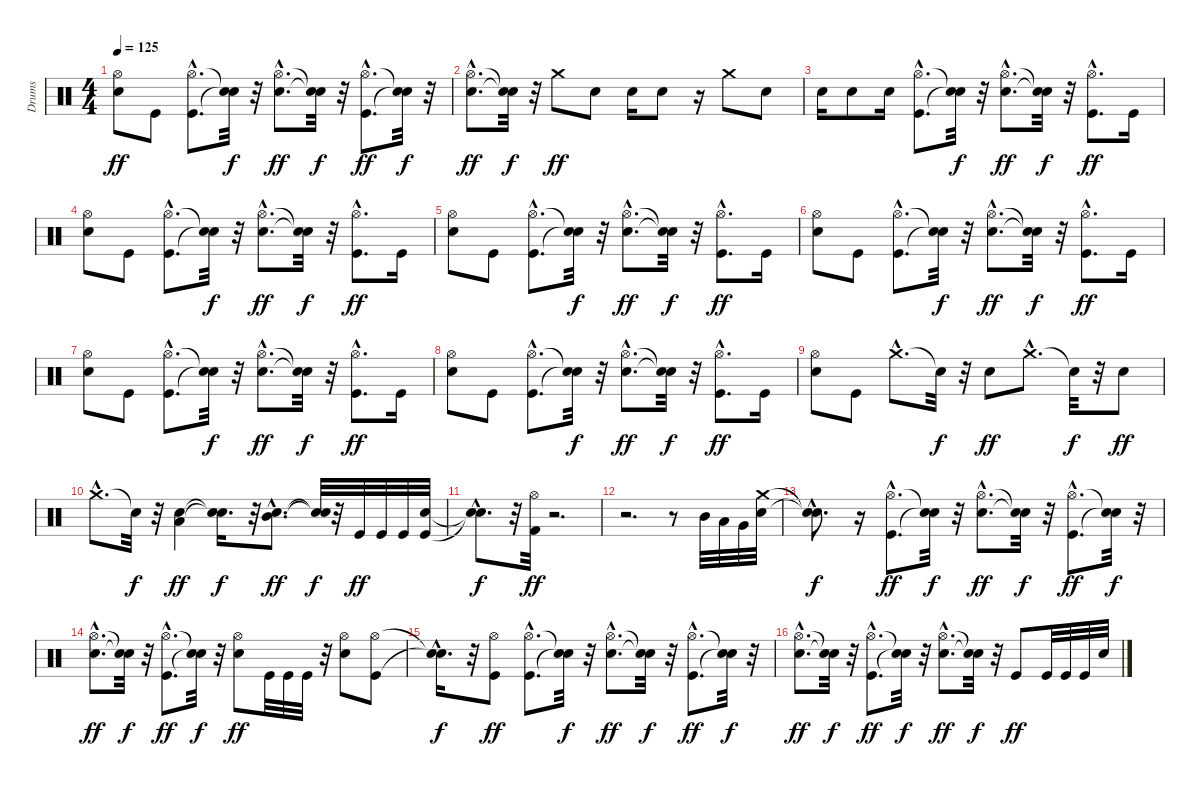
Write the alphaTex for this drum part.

\track ("Drums" "Drums") {instrument percussion}
\staff {score}
\articulation defaults
\ts (4 4)
\tempo 125
\clef neutral
\ks c
("Electric Snare (hit)" "Hi-Hat (open)").8{dy ff} "Kick (hit)".8 ("Kick (hit)"{hac} "Hi-Hat (open)"{hac}).8{d} ("Snare (hit)"{t} "Snare (hit)"{t}).32{dy f} r.32 ("Electric Snare (hit)"{hac} "Hi-Hat (open)"{hac}).8{d dy ff} ("Snare (hit)"{t} "Snare (hit)"{t}).32{dy f} r.32 ("Kick (hit)"{hac} "Hi-Hat (open)"{hac}).8{d dy ff} ("Snare (hit)"{t} "Snare (hit)"{t}).32{dy f} r.32 |
("Electric Snare (hit)"{hac} "Hi-Hat (open)"{hac}).8{d dy ff} ("Snare (hit)"{t} "Snare (hit)"{t}).32{dy f} r.32 "Crash medium (hit)".8{dy ff} "Electric Snare (hit)".8 "Electric Snare (hit)".16 "Electric Snare (hit)".8 r.16 "Crash medium (hit)".8 "Electric Snare (hit)".8 |
"Electric Snare (hit)".16 "Electric Snare (hit)".8 "Electric Snare (hit)".16 ("Kick (hit)"{hac} "Hi-Hat (open)"{hac}).8{d} ("Snare (hit)"{t} "Snare (hit)"{t}).32{dy f} r.32 ("Electric Snare (hit)"{hac} "Hi-Hat (open)"{hac}).8{d dy ff} ("Snare (hit)"{t} "Snare (hit)"{t}).32{dy f} r.32 ("Kick (hit)"{hac} "Hi-Hat (open)"{hac}).8{d dy ff} "Kick (hit)".16 |
("Electric Snare (hit)" "Hi-Hat (open)").8 "Kick (hit)".8 ("Kick (hit)"{hac} "Hi-Hat (open)"{hac}).8{d} ("Snare (hit)"{t} "Snare (hit)"{t}).32{dy f} r.32 ("Electric Snare (hit)"{hac} "Hi-Hat (open)"{hac}).8{d dy ff} ("Snare (hit)"{t} "Snare (hit)"{t}).32{dy f} r.32 ("Kick (hit)"{hac} "Hi-Hat (open)"{hac}).8{d dy ff} "Kick (hit)".16 |
("Electric Snare (hit)" "Hi-Hat (open)").8 "Kick (hit)".8 ("Kick (hit)"{hac} "Hi-Hat (open)"{hac}).8{d} ("Snare (hit)"{t} "Snare (hit)"{t}).32{dy f} r.32 ("Electric Snare (hit)"{hac} "Hi-Hat (open)"{hac}).8{d dy ff} ("Snare (hit)"{t} "Snare (hit)"{t}).32{dy f} r.32 ("Kick (hit)"{hac} "Hi-Hat (open)"{hac}).8{d dy ff} "Kick (hit)".16 |
("Electric Snare (hit)" "Hi-Hat (open)").8 "Kick (hit)".8 ("Kick (hit)"{hac} "Hi-Hat (open)"{hac}).8{d} ("Snare (hit)"{t} "Snare (hit)"{t}).32{dy f} r.32 ("Electric Snare (hit)"{hac} "Hi-Hat (open)"{hac}).8{d dy ff} ("Snare (hit)"{t} "Snare (hit)"{t}).32{dy f} r.32 ("Kick (hit)"{hac} "Hi-Hat (open)"{hac}).8{d dy ff} "Kick (hit)".16 |
("Electric Snare (hit)" "Hi-Hat (open)").8 "Kick (hit)".8 ("Kick (hit)"{hac} "Hi-Hat (open)"{hac}).8{d} ("Snare (hit)"{t} "Snare (hit)"{t}).32{dy f} r.32 ("Electric Snare (hit)"{hac} "Hi-Hat (open)"{hac}).8{d dy ff} ("Snare (hit)"{t} "Snare (hit)"{t}).32{dy f} r.32 ("Kick (hit)"{hac} "Hi-Hat (open)"{hac}).8{d dy ff} "Kick (hit)".16 |
("Electric Snare (hit)" "Hi-Hat (open)").8 "Kick (hit)".8 ("Kick (hit)"{hac} "Hi-Hat (open)"{hac}).8{d} ("Snare (hit)"{t} "Snare (hit)"{t}).32{dy f} r.32 ("Electric Snare (hit)"{hac} "Hi-Hat (open)"{hac}).8{d dy ff} ("Snare (hit)"{t} "Snare (hit)"{t}).32{dy f} r.32 ("Kick (hit)"{hac} "Hi-Hat (open)"{hac}).8{d dy ff} "Kick (hit)".16 |
("Electric Snare (hit)" "Hi-Hat (open)").8 "Kick (hit)".8 "Crash medium (hit)"{hac}.8{d} "Snare (hit)"{t}.32{dy f} r.32 "Snare (hit) 2".8{dy ff} "Crash medium (hit)"{hac}.8{d} "Snare (hit)"{t}.32{dy f} r.32 "Snare (hit) 2".8{dy ff} |
"Crash medium (hit)"{hac}.8{d} "Snare (hit)"{t}.32{dy f} r.32 ("Electric Snare (hit)" "Low Tom (hit)").4{dy ff} ("Snare (hit)"{t} "Snare (hit)"{t}).16{d dy f} r.32 ("Electric Snare (hit)"{hac} "Mid Tom (hit)"{hac}).8{d dy ff} ("Snare (hit)"{t} "Snare (hit)"{t}).32{dy f} r.32 "Kick (hit)".32{dy ff} "Kick (hit)".32 "Kick (hit)".32 ("Kick (hit)" "Electric Snare (hit)").32 |
("Snare (hit)"{hac t} "Snare (hit)"{hac t}).8{d dy f} r.32 ("Kick (hit) 2" "Hi-Hat (open)").32{dy ff} r.2{d} |
r.2{d} r.8 "Mid Tom (hit)".32 "Low Tom (hit)".32 "Very Low Tom (hit)".32 ("Electric Snare (hit)" "Crash medium (hit)").32 |
("Snare (hit)"{hac t} "Snare (hit)"{hac t}).8{d dy f} r.16 ("Kick (hit)"{hac} "Hi-Hat (open)"{hac}).8{d dy ff} ("Snare (hit)"{t} "Snare (hit)"{t}).32{dy f} r.32 ("Electric Snare (hit)"{hac} "Hi-Hat (open)"{hac}).8{d dy ff} ("Snare (hit)"{t} "Snare (hit)"{t}).32{dy f} r.32 ("Kick (hit)"{hac} "Hi-Hat (open)"{hac}).8{d dy ff} ("Snare (hit)"{t} "Snare (hit)"{t}).32{dy f} r.32 |
("Electric Snare (hit)"{hac} "Hi-Hat (open)"{hac}).8{d dy ff} ("Snare (hit)"{t} "Snare (hit)"{t}).32{dy f} r.32 ("Kick (hit)"{hac} "Hi-Hat (open)"{hac}).8{d dy ff} ("Snare (hit)"{t} "Snare (hit)"{t}).32{dy f} r.32 ("Electric Snare (hit)" "Hi-Hat (open)").8{dy ff} "Kick (hit)".32 "Kick (hit)".32 "Kick (hit)".32 r.32 ("Electric Snare (hit)" "Hi-Hat (open)").8 ("Kick (hit)" "Hi-Hat (open)").8 |
("Snare (hit)"{hac t} "Snare (hit)"{hac t}).16{d dy f} r.32 ("Kick (hit)" "Hi-Hat (open)").8{dy ff} ("Kick (hit)"{hac} "Hi-Hat (open)"{hac}).8{d} ("Snare (hit)"{t} "Snare (hit)"{t}).32{dy f} r.32 ("Electric Snare (hit)"{hac} "Hi-Hat (open)"{hac}).8{d dy ff} ("Snare (hit)"{t} "Snare (hit)"{t}).32{dy f} r.32 ("Kick (hit)"{hac} "Hi-Hat (open)"{hac}).8{d dy ff} ("Snare (hit)"{t} "Snare (hit)"{t}).32{dy f} r.32 |
("Electric Snare (hit)"{hac} "Hi-Hat (open)"{hac}).8{d dy ff} ("Snare (hit)"{t} "Snare (hit)"{t}).32{dy f} r.32 ("Kick (hit)"{hac} "Hi-Hat (open)"{hac}).8{d dy ff} ("Snare (hit)"{t} "Snare (hit)"{t}).32{dy f} r.32 ("Electric Snare (hit)"{hac} "Hi-Hat (open)"{hac}).8{d dy ff} ("Snare (hit)"{t} "Snare (hit)"{t}).32{dy f} r.32 "Kick (hit)".8{dy ff} "Kick (hit)".32 "Kick (hit)".32 "Kick (hit)".32 "Electric Snare (hit)".32
